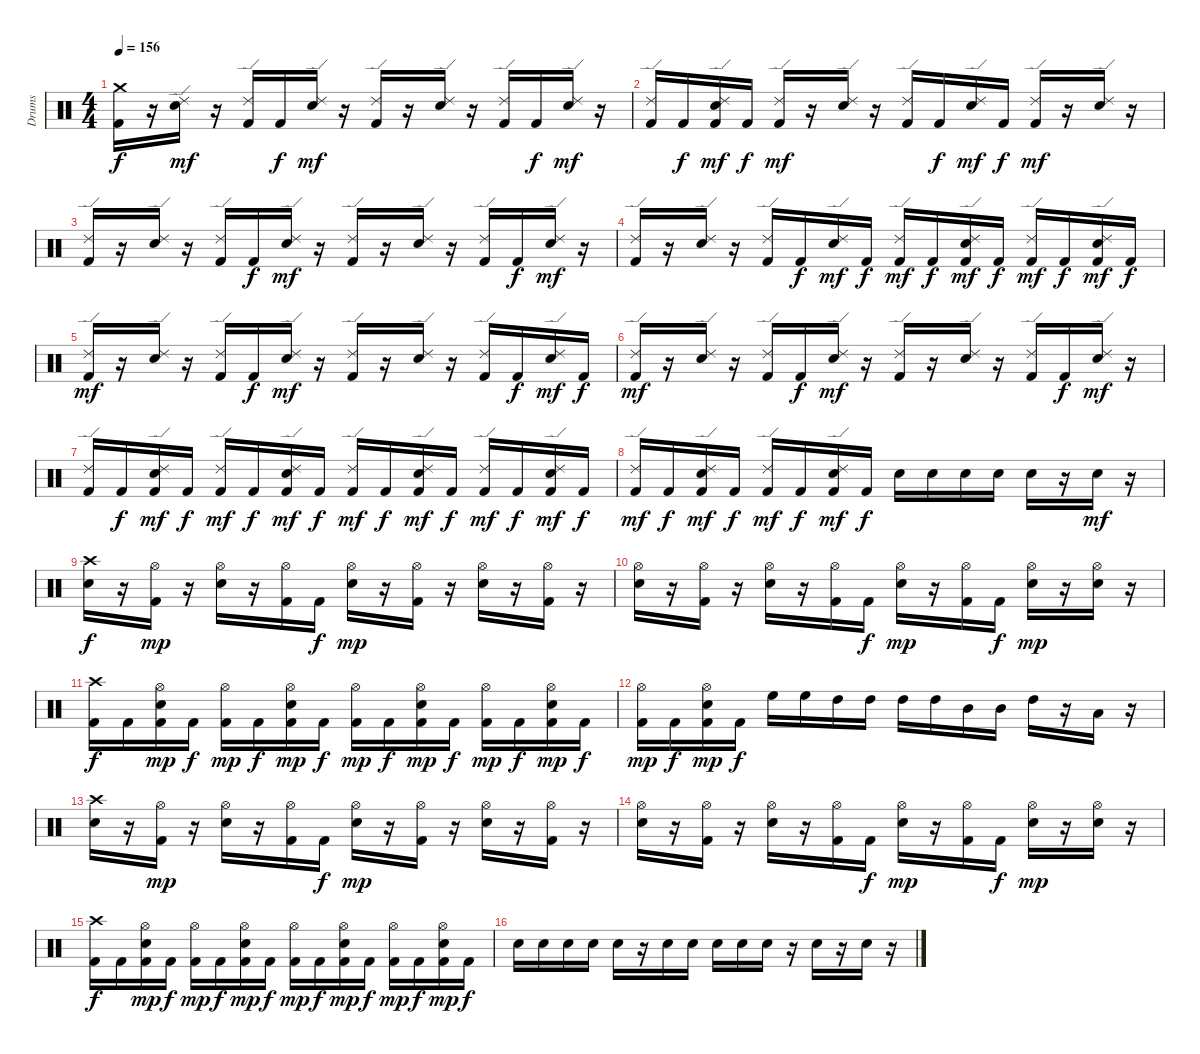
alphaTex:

\track ("Drums" "Drums") {instrument percussion}
\staff {score}
\articulation defaults
\ts (4 4)
\tempo 156
\clef neutral
\ks c
("Kick (hit) 2" "Crash medium (hit)").16{dy f} r.16 ("Snare (hit) 2" "Ride (edge) 2").16{dy mf} r.16 ("Kick (hit) 2" "Ride (edge) 2").16 "Kick (hit) 2".16{dy f} ("Snare (hit) 2" "Ride (edge) 2").16{dy mf} r.16 ("Kick (hit) 2" "Ride (edge) 2").16 r.16 ("Snare (hit) 2" "Ride (edge) 2").16 r.16 ("Kick (hit) 2" "Ride (edge) 2").16 "Kick (hit) 2".16{dy f} ("Snare (hit) 2" "Ride (edge) 2").16{dy mf} r.16 |
("Kick (hit) 2" "Ride (edge) 2").16 "Kick (hit) 2".16{dy f} ("Snare (hit) 2" "Kick (hit) 2" "Ride (edge) 2").16{dy mf} "Kick (hit) 2".16{dy f} ("Kick (hit) 2" "Ride (edge) 2").16{dy mf} r.16 ("Snare (hit) 2" "Ride (edge) 2").16 r.16 ("Kick (hit) 2" "Ride (edge) 2").16 "Kick (hit) 2".16{dy f} ("Snare (hit) 2" "Ride (edge) 2").16{dy mf} "Kick (hit) 2".16{dy f} ("Kick (hit) 2" "Ride (edge) 2").16{dy mf} r.16 ("Snare (hit) 2" "Ride (edge) 2").16 r.16 |
("Kick (hit) 2" "Ride (edge) 2").16 r.16 ("Snare (hit) 2" "Ride (edge) 2").16 r.16 ("Kick (hit) 2" "Ride (edge) 2").16 "Kick (hit) 2".16{dy f} ("Snare (hit) 2" "Ride (edge) 2").16{dy mf} r.16 ("Kick (hit) 2" "Ride (edge) 2").16 r.16 ("Snare (hit) 2" "Ride (edge) 2").16 r.16 ("Kick (hit) 2" "Ride (edge) 2").16 "Kick (hit) 2".16{dy f} ("Snare (hit) 2" "Ride (edge) 2").16{dy mf} r.16 |
("Kick (hit) 2" "Ride (edge) 2").16 r.16 ("Snare (hit) 2" "Ride (edge) 2").16 r.16 ("Kick (hit) 2" "Ride (edge) 2").16 "Kick (hit) 2".16{dy f} ("Snare (hit) 2" "Ride (edge) 2").16{dy mf} "Kick (hit) 2".16{dy f} ("Kick (hit) 2" "Ride (edge) 2").16{dy mf} "Kick (hit) 2".16{dy f} ("Snare (hit) 2" "Kick (hit) 2" "Ride (edge) 2").16{dy mf} "Kick (hit) 2".16{dy f} ("Kick (hit) 2" "Ride (edge) 2").16{dy mf} "Kick (hit) 2".16{dy f} ("Snare (hit) 2" "Kick (hit) 2" "Ride (edge) 2").16{dy mf} "Kick (hit) 2".16{dy f} |
("Kick (hit) 2" "Ride (edge) 2").16{dy mf} r.16 ("Snare (hit) 2" "Ride (edge) 2").16 r.16 ("Kick (hit) 2" "Ride (edge) 2").16 "Kick (hit) 2".16{dy f} ("Snare (hit) 2" "Ride (edge) 2").16{dy mf} r.16 ("Kick (hit) 2" "Ride (edge) 2").16 r.16 ("Snare (hit) 2" "Ride (edge) 2").16 r.16 ("Kick (hit) 2" "Ride (edge) 2").16 "Kick (hit) 2".16{dy f} ("Snare (hit) 2" "Ride (edge) 2").16{dy mf} "Kick (hit) 2".16{dy f} |
("Kick (hit) 2" "Ride (edge) 2").16{dy mf} r.16 ("Snare (hit) 2" "Ride (edge) 2").16 r.16 ("Kick (hit) 2" "Ride (edge) 2").16 "Kick (hit) 2".16{dy f} ("Snare (hit) 2" "Ride (edge) 2").16{dy mf} r.16 ("Kick (hit) 2" "Ride (edge) 2").16 r.16 ("Snare (hit) 2" "Ride (edge) 2").16 r.16 ("Kick (hit) 2" "Ride (edge) 2").16 "Kick (hit) 2".16{dy f} ("Snare (hit) 2" "Ride (edge) 2").16{dy mf} r.16 |
("Kick (hit) 2" "Ride (edge) 2").16 "Kick (hit) 2".16{dy f} ("Snare (hit) 2" "Kick (hit) 2" "Ride (edge) 2").16{dy mf} "Kick (hit) 2".16{dy f} ("Kick (hit) 2" "Ride (edge) 2").16{dy mf} "Kick (hit) 2".16{dy f} ("Snare (hit) 2" "Kick (hit) 2" "Ride (edge) 2").16{dy mf} "Kick (hit) 2".16{dy f} ("Kick (hit) 2" "Ride (edge) 2").16{dy mf} "Kick (hit) 2".16{dy f} ("Snare (hit) 2" "Kick (hit) 2" "Ride (edge) 2").16{dy mf} "Kick (hit) 2".16{dy f} ("Kick (hit) 2" "Ride (edge) 2").16{dy mf} "Kick (hit) 2".16{dy f} ("Snare (hit) 2" "Kick (hit) 2" "Ride (edge) 2").16{dy mf} "Kick (hit) 2".16{dy f} |
("Kick (hit) 2" "Ride (edge) 2").16{dy mf} "Kick (hit) 2".16{dy f} ("Snare (hit) 2" "Kick (hit) 2" "Ride (edge) 2").16{dy mf} "Kick (hit) 2".16{dy f} ("Kick (hit) 2" "Ride (edge) 2").16{dy mf} "Kick (hit) 2".16{dy f} ("Snare (hit) 2" "Kick (hit) 2" "Ride (edge) 2").16{dy mf} "Kick (hit) 2".16{dy f} "Snare (hit) 2".16 "Snare (hit) 2".16 "Snare (hit) 2".16 "Snare (hit) 2".16 "Snare (hit) 2".16 r.16 "Snare (hit) 2".16{dy mf} r.16 |
\section ("" "")
("Snare (hit) 2" "Crash high (hit)").16{dy f} r.16 ("Kick (hit) 2" "Hi-Hat (open)").16{dy mp} r.16 ("Snare (hit) 2" "Hi-Hat (open)").16 r.16 ("Kick (hit) 2" "Hi-Hat (open)").16 "Kick (hit) 2".16{dy f} ("Snare (hit) 2" "Hi-Hat (open)").16{dy mp} r.16 ("Kick (hit) 2" "Hi-Hat (open)").16 r.16 ("Snare (hit) 2" "Hi-Hat (open)").16 r.16 ("Kick (hit) 2" "Hi-Hat (open)").16 r.16 |
("Snare (hit) 2" "Hi-Hat (open)").16 r.16 ("Kick (hit) 2" "Hi-Hat (open)").16 r.16 ("Snare (hit) 2" "Hi-Hat (open)").16 r.16 ("Kick (hit) 2" "Hi-Hat (open)").16 "Kick (hit) 2".16{dy f} ("Snare (hit) 2" "Hi-Hat (open)").16{dy mp} r.16 ("Kick (hit) 2" "Hi-Hat (open)").16 "Kick (hit) 2".16{dy f} ("Snare (hit) 2" "Hi-Hat (open)").16{dy mp} r.16 ("Snare (hit) 2" "Hi-Hat (open)").16 r.16 |
("Kick (hit) 2" "Crash high (hit)").16{dy f} "Kick (hit) 2".16 ("Snare (hit) 2" "Kick (hit) 2" "Hi-Hat (open)").16{dy mp} "Kick (hit) 2".16{dy f} ("Kick (hit) 2" "Hi-Hat (open)").16{dy mp} "Kick (hit) 2".16{dy f} ("Snare (hit) 2" "Kick (hit) 2" "Hi-Hat (open)").16{dy mp} "Kick (hit) 2".16{dy f} ("Kick (hit) 2" "Hi-Hat (open)").16{dy mp} "Kick (hit) 2".16{dy f} ("Snare (hit) 2" "Kick (hit) 2" "Hi-Hat (open)").16{dy mp} "Kick (hit) 2".16{dy f} ("Kick (hit) 2" "Hi-Hat (open)").16{dy mp} "Kick (hit) 2".16{dy f} ("Snare (hit) 2" "Kick (hit) 2" "Hi-Hat (open)").16{dy mp} "Kick (hit) 2".16{dy f} |
("Kick (hit) 2" "Hi-Hat (open)").16{dy mp} "Kick (hit) 2".16{dy f} ("Snare (hit) 2" "Kick (hit) 2" "Hi-Hat (open)").16{dy mp} "Kick (hit) 2".16{dy f} "High Floor Tom (hit)".16 "High Floor Tom (hit)".16 "High Tom (hit)".16 "High Tom (hit)".16 "High Tom (hit)".16 "High Tom (hit)".16 "Mid Tom (hit)".16 "Mid Tom (hit)".16 "High Tom (hit)".16 r.16 "Low Tom (hit)".16 r.16 |
("Snare (hit) 2" "Crash high (hit)").16 r.16 ("Kick (hit) 2" "Hi-Hat (open)").16{dy mp} r.16 ("Snare (hit) 2" "Hi-Hat (open)").16 r.16 ("Kick (hit) 2" "Hi-Hat (open)").16 "Kick (hit) 2".16{dy f} ("Snare (hit) 2" "Hi-Hat (open)").16{dy mp} r.16 ("Kick (hit) 2" "Hi-Hat (open)").16 r.16 ("Snare (hit) 2" "Hi-Hat (open)").16 r.16 ("Kick (hit) 2" "Hi-Hat (open)").16 r.16 |
("Snare (hit) 2" "Hi-Hat (open)").16 r.16 ("Kick (hit) 2" "Hi-Hat (open)").16 r.16 ("Snare (hit) 2" "Hi-Hat (open)").16 r.16 ("Kick (hit) 2" "Hi-Hat (open)").16 "Kick (hit) 2".16{dy f} ("Snare (hit) 2" "Hi-Hat (open)").16{dy mp} r.16 ("Kick (hit) 2" "Hi-Hat (open)").16 "Kick (hit) 2".16{dy f} ("Snare (hit) 2" "Hi-Hat (open)").16{dy mp} r.16 ("Snare (hit) 2" "Hi-Hat (open)").16 r.16 |
("Kick (hit) 2" "Crash high (hit)").16{dy f} "Kick (hit) 2".16 ("Snare (hit) 2" "Kick (hit) 2" "Hi-Hat (open)").16{dy mp} "Kick (hit) 2".16{dy f} ("Kick (hit) 2" "Hi-Hat (open)").16{dy mp} "Kick (hit) 2".16{dy f} ("Snare (hit) 2" "Kick (hit) 2" "Hi-Hat (open)").16{dy mp} "Kick (hit) 2".16{dy f} ("Kick (hit) 2" "Hi-Hat (open)").16{dy mp} "Kick (hit) 2".16{dy f} ("Snare (hit) 2" "Kick (hit) 2" "Hi-Hat (open)").16{dy mp} "Kick (hit) 2".16{dy f} ("Kick (hit) 2" "Hi-Hat (open)").16{dy mp} "Kick (hit) 2".16{dy f} ("Snare (hit) 2" "Kick (hit) 2" "Hi-Hat (open)").16{dy mp} "Kick (hit) 2".16{dy f} |
"Snare (hit) 2".16 "Snare (hit) 2".16 "Snare (hit) 2".16 "Snare (hit) 2".16 "Snare (hit) 2".16 r.16 "Snare (hit) 2".16 "Snare (hit) 2".16 "Snare (hit) 2".16 "Snare (hit) 2".16 "Snare (hit) 2".16 r.16 "Snare (hit) 2".16 r.16 "Snare (hit) 2".16 r.16
